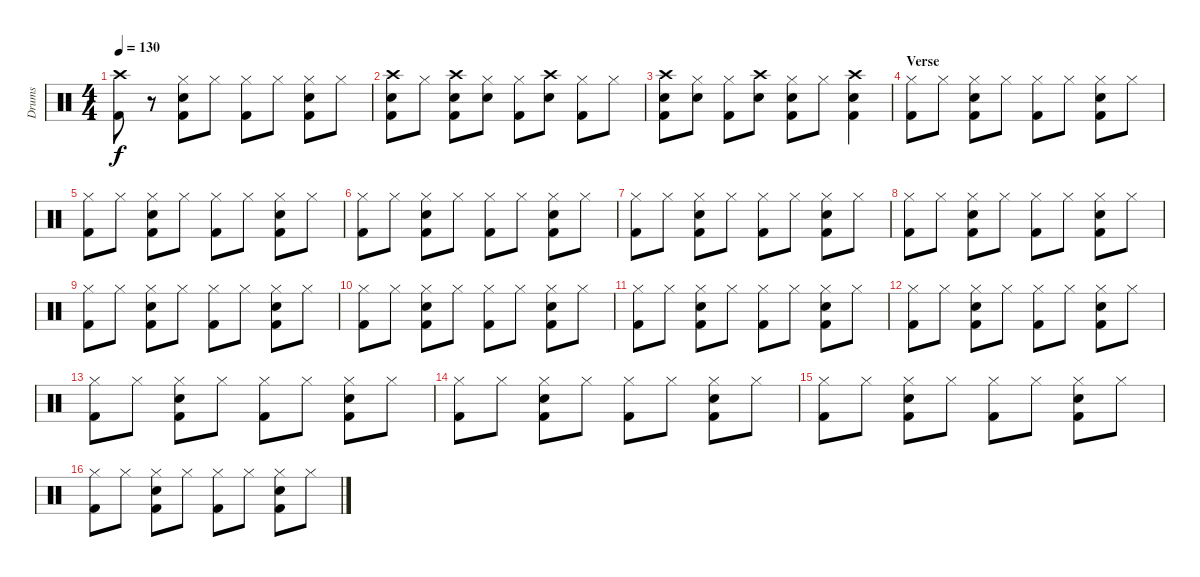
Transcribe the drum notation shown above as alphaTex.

\track ("Drums" "Drums") {instrument percussion}
\staff {score}
\articulation defaults
\ts (4 4)
\tempo 130
\clef neutral
\ks c
("Crash high (hit)" "Kick (hit) 2").8{dy f} r.8 ("Hi-Hat (closed)" "Snare (hit) 2" "Kick (hit) 2").8 "Hi-Hat (closed)".8 ("Hi-Hat (closed)" "Kick (hit) 2").8 "Hi-Hat (closed)".8 ("Hi-Hat (closed)" "Snare (hit) 2" "Kick (hit) 2").8 "Hi-Hat (closed)".8 |
("Crash high (hit)" "Snare (hit) 2" "Kick (hit) 2").8 "Hi-Hat (closed)".8 ("Crash high (hit)" "Snare (hit) 2" "Kick (hit) 2").8 ("Hi-Hat (closed)" "Snare (hit) 2").8 ("Hi-Hat (closed)" "Kick (hit) 2").8 ("Crash high (hit)" "Snare (hit) 2").8 ("Hi-Hat (closed)" "Kick (hit) 2").8 "Hi-Hat (closed)".8 |
("Crash high (hit)" "Snare (hit) 2" "Kick (hit) 2").8 ("Hi-Hat (closed)" "Snare (hit) 2").8 ("Hi-Hat (closed)" "Kick (hit) 2").8 ("Crash high (hit)" "Snare (hit) 2").8 ("Hi-Hat (closed)" "Snare (hit) 2" "Kick (hit) 2").8 "Hi-Hat (closed)".8 ("Crash high (hit)" "Snare (hit) 2" "Kick (hit) 2").4 |
\section ("" "Verse")
("Hi-Hat (closed)" "Kick (hit) 2").8 "Hi-Hat (closed)".8 ("Hi-Hat (closed)" "Snare (hit) 2" "Kick (hit) 2").8 "Hi-Hat (closed)".8 ("Hi-Hat (closed)" "Kick (hit) 2").8 "Hi-Hat (closed)".8 ("Hi-Hat (closed)" "Snare (hit) 2" "Kick (hit) 2").8 "Hi-Hat (closed)".8 |
("Hi-Hat (closed)" "Kick (hit) 2").8 "Hi-Hat (closed)".8 ("Hi-Hat (closed)" "Snare (hit) 2" "Kick (hit) 2").8 "Hi-Hat (closed)".8 ("Hi-Hat (closed)" "Kick (hit) 2").8 "Hi-Hat (closed)".8 ("Hi-Hat (closed)" "Snare (hit) 2" "Kick (hit) 2").8 "Hi-Hat (closed)".8 |
("Hi-Hat (closed)" "Kick (hit) 2").8 "Hi-Hat (closed)".8 ("Hi-Hat (closed)" "Snare (hit) 2" "Kick (hit) 2").8 "Hi-Hat (closed)".8 ("Hi-Hat (closed)" "Kick (hit) 2").8 "Hi-Hat (closed)".8 ("Hi-Hat (closed)" "Snare (hit) 2" "Kick (hit) 2").8 "Hi-Hat (closed)".8 |
("Hi-Hat (closed)" "Kick (hit) 2").8 "Hi-Hat (closed)".8 ("Hi-Hat (closed)" "Snare (hit) 2" "Kick (hit) 2").8 "Hi-Hat (closed)".8 ("Hi-Hat (closed)" "Kick (hit) 2").8 "Hi-Hat (closed)".8 ("Hi-Hat (closed)" "Snare (hit) 2" "Kick (hit) 2").8 "Hi-Hat (closed)".8 |
("Hi-Hat (closed)" "Kick (hit) 2").8 "Hi-Hat (closed)".8 ("Hi-Hat (closed)" "Snare (hit) 2" "Kick (hit) 2").8 "Hi-Hat (closed)".8 ("Hi-Hat (closed)" "Kick (hit) 2").8 "Hi-Hat (closed)".8 ("Hi-Hat (closed)" "Snare (hit) 2" "Kick (hit) 2").8 "Hi-Hat (closed)".8 |
("Hi-Hat (closed)" "Kick (hit) 2").8 "Hi-Hat (closed)".8 ("Hi-Hat (closed)" "Snare (hit) 2" "Kick (hit) 2").8 "Hi-Hat (closed)".8 ("Hi-Hat (closed)" "Kick (hit) 2").8 "Hi-Hat (closed)".8 ("Hi-Hat (closed)" "Snare (hit) 2" "Kick (hit) 2").8 "Hi-Hat (closed)".8 |
("Hi-Hat (closed)" "Kick (hit) 2").8 "Hi-Hat (closed)".8 ("Hi-Hat (closed)" "Snare (hit) 2" "Kick (hit) 2").8 "Hi-Hat (closed)".8 ("Hi-Hat (closed)" "Kick (hit) 2").8 "Hi-Hat (closed)".8 ("Hi-Hat (closed)" "Snare (hit) 2" "Kick (hit) 2").8 "Hi-Hat (closed)".8 |
("Hi-Hat (closed)" "Kick (hit) 2").8 "Hi-Hat (closed)".8 ("Hi-Hat (closed)" "Snare (hit) 2" "Kick (hit) 2").8 "Hi-Hat (closed)".8 ("Hi-Hat (closed)" "Kick (hit) 2").8 "Hi-Hat (closed)".8 ("Hi-Hat (closed)" "Snare (hit) 2" "Kick (hit) 2").8 "Hi-Hat (closed)".8 |
("Hi-Hat (closed)" "Kick (hit) 2").8 "Hi-Hat (closed)".8 ("Hi-Hat (closed)" "Snare (hit) 2" "Kick (hit) 2").8 "Hi-Hat (closed)".8 ("Hi-Hat (closed)" "Kick (hit) 2").8 "Hi-Hat (closed)".8 ("Hi-Hat (closed)" "Snare (hit) 2" "Kick (hit) 2").8 "Hi-Hat (closed)".8 |
("Hi-Hat (closed)" "Kick (hit) 2").8 "Hi-Hat (closed)".8 ("Hi-Hat (closed)" "Snare (hit) 2" "Kick (hit) 2").8 "Hi-Hat (closed)".8 ("Hi-Hat (closed)" "Kick (hit) 2").8 "Hi-Hat (closed)".8 ("Hi-Hat (closed)" "Snare (hit) 2" "Kick (hit) 2").8 "Hi-Hat (closed)".8 |
("Hi-Hat (closed)" "Kick (hit) 2").8 "Hi-Hat (closed)".8 ("Hi-Hat (closed)" "Snare (hit) 2" "Kick (hit) 2").8 "Hi-Hat (closed)".8 ("Hi-Hat (closed)" "Kick (hit) 2").8 "Hi-Hat (closed)".8 ("Hi-Hat (closed)" "Snare (hit) 2" "Kick (hit) 2").8 "Hi-Hat (closed)".8 |
("Hi-Hat (closed)" "Kick (hit) 2").8 "Hi-Hat (closed)".8 ("Hi-Hat (closed)" "Snare (hit) 2" "Kick (hit) 2").8 "Hi-Hat (closed)".8 ("Hi-Hat (closed)" "Kick (hit) 2").8 "Hi-Hat (closed)".8 ("Hi-Hat (closed)" "Snare (hit) 2" "Kick (hit) 2").8 "Hi-Hat (closed)".8 |
("Hi-Hat (closed)" "Kick (hit) 2").8 "Hi-Hat (closed)".8 ("Hi-Hat (closed)" "Snare (hit) 2" "Kick (hit) 2").8 "Hi-Hat (closed)".8 ("Hi-Hat (closed)" "Kick (hit) 2").8 "Hi-Hat (closed)".8 ("Hi-Hat (closed)" "Snare (hit) 2" "Kick (hit) 2").8 "Hi-Hat (closed)".8
